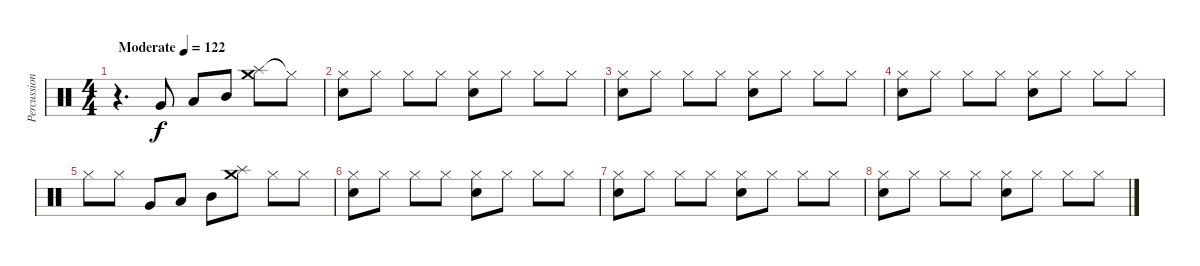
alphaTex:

\track ("Percussion" "Percussion") {instrument percussion}
\staff {score}
\articulation defaults
\ts (4 4)
\tempo (122 "Moderate")
\clef neutral
\ks c
r.4{d dy f} "Very Low Tom (hit)".8 "Low Tom (hit)".8 "Mid Tom (hit)".8 ("Splash (hit)" "Crash medium (hit)").8 "Hi-Hat (closed)"{t}.8 |
("Hi-Hat (closed)" "Snare (hit) 2").8 "Hi-Hat (closed)".8 "Hi-Hat (closed)".8 "Hi-Hat (closed)".8 ("Hi-Hat (closed)" "Snare (hit) 2").8 "Hi-Hat (closed)".8 "Hi-Hat (closed)".8 "Hi-Hat (closed)".8 |
("Hi-Hat (closed)" "Snare (hit) 2").8 "Hi-Hat (closed)".8 "Hi-Hat (closed)".8 "Hi-Hat (closed)".8 ("Hi-Hat (closed)" "Snare (hit) 2").8 "Hi-Hat (closed)".8 "Hi-Hat (closed)".8 "Hi-Hat (closed)".8 |
("Hi-Hat (closed)" "Snare (hit) 2").8 "Hi-Hat (closed)".8 "Hi-Hat (closed)".8 "Hi-Hat (closed)".8 ("Hi-Hat (closed)" "Snare (hit) 2").8 "Hi-Hat (closed)".8 "Hi-Hat (closed)".8 "Hi-Hat (closed)".8 |
"Hi-Hat (closed)".8 "Hi-Hat (closed)".8 "Very Low Tom (hit)".8 "Low Tom (hit)".8 "Mid Tom (hit)".8 ("Splash (hit)" "Crash medium (hit)").8 "Hi-Hat (closed)".8 "Hi-Hat (closed)".8 |
("Hi-Hat (closed)" "Snare (hit) 2").8 "Hi-Hat (closed)".8 "Hi-Hat (closed)".8 "Hi-Hat (closed)".8 ("Hi-Hat (closed)" "Snare (hit) 2").8 "Hi-Hat (closed)".8 "Hi-Hat (closed)".8 "Hi-Hat (closed)".8 |
("Hi-Hat (closed)" "Snare (hit) 2").8 "Hi-Hat (closed)".8 "Hi-Hat (closed)".8 "Hi-Hat (closed)".8 ("Hi-Hat (closed)" "Snare (hit) 2").8 "Hi-Hat (closed)".8 "Hi-Hat (closed)".8 "Hi-Hat (closed)".8 |
("Hi-Hat (closed)" "Snare (hit) 2").8 "Hi-Hat (closed)".8 "Hi-Hat (closed)".8 "Hi-Hat (closed)".8 ("Hi-Hat (closed)" "Snare (hit) 2").8 "Hi-Hat (closed)".8 "Hi-Hat (closed)".8 "Hi-Hat (closed)".8
